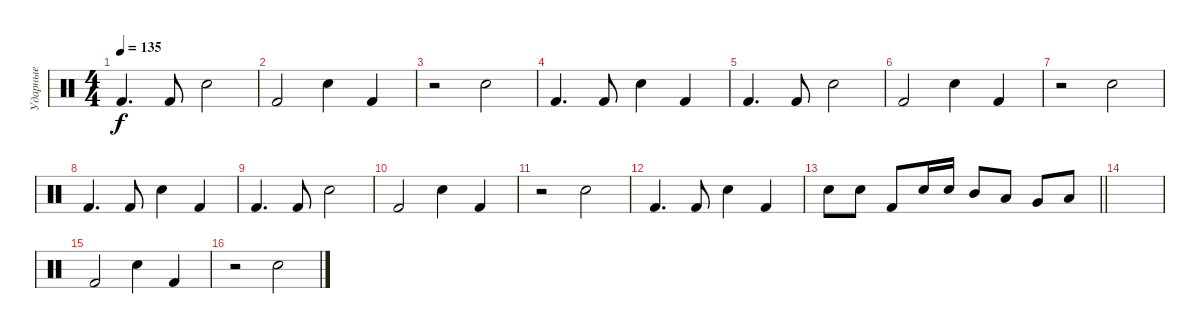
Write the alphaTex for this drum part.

\track ("Ударные" "Ударные") {instrument percussion}
\staff {score}
\articulation defaults
\ts (4 4)
\tempo 135
\clef neutral
\ks c "Kick (hit) 2".4{d dy f} "Kick (hit) 2".8 "Snare (hit) 2".2
|
"Kick (hit) 2".2 "Snare (hit) 2".4 "Kick (hit) 2".4 |
r.2 "Snare (hit) 2".2 |
"Kick (hit) 2".4{d} "Kick (hit) 2".8 "Snare (hit) 2".4 "Kick (hit) 2".4 |
"Kick (hit) 2".4{d} "Kick (hit) 2".8 "Snare (hit) 2".2 |
"Kick (hit) 2".2 "Snare (hit) 2".4 "Kick (hit) 2".4 |
r.2 "Snare (hit) 2".2 |
"Kick (hit) 2".4{d} "Kick (hit) 2".8 "Snare (hit) 2".4 "Kick (hit) 2".4 |
"Kick (hit) 2".4{d} "Kick (hit) 2".8 "Snare (hit) 2".2 |
"Kick (hit) 2".2 "Snare (hit) 2".4 "Kick (hit) 2".4 |
r.2 "Snare (hit) 2".2 |
"Kick (hit) 2".4{d} "Kick (hit) 2".8 "Snare (hit) 2".4 "Kick (hit) 2".4 |
\barLineRight lightlight "Snare (hit) 2".8 "Snare (hit) 2".8 "Kick (hit) 2".8 "Snare (hit) 2".16 "Snare (hit) 2".16 "Mid Tom (hit)".8 "Low Tom (hit)".8 "Very Low Tom (hit)".8 "Low Floor Tom (hit)".8
|
|
"Kick (hit) 2".2 "Snare (hit) 2".4 "Kick (hit) 2".4 |
r.2 "Snare (hit) 2".2
